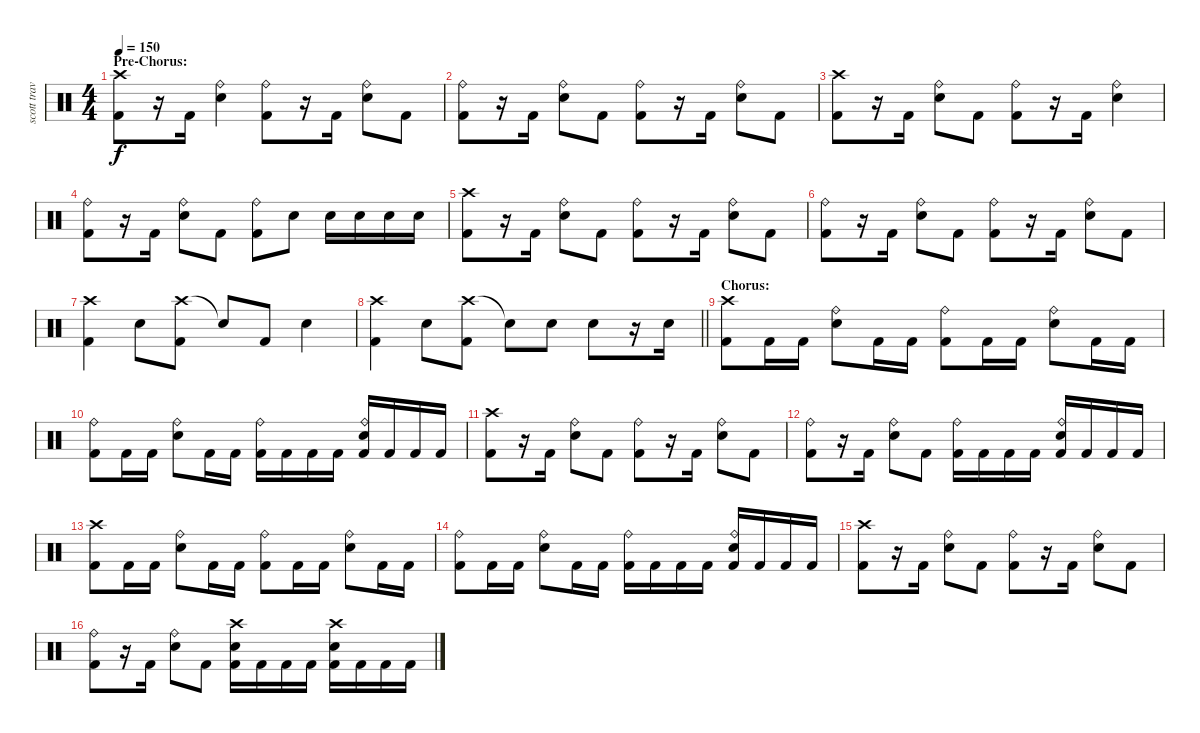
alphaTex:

\track ("scott travis" "scott trav") {instrument percussion}
\staff {score}
\articulation defaults
\ts (4 4)
\section ("" "Pre-Chorus:")
\tempo 150
\clef neutral
\ks c
("Crash high (hit)" "Kick (hit) 2").8{dy f} r.16 "Kick (hit) 2".16 ("Ride (bell)" "Snare (hit) 2").4 ("Ride (bell)" "Kick (hit) 2").8 r.16 "Kick (hit) 2".16 ("Ride (bell)" "Snare (hit) 2").8 "Kick (hit) 2".8 |
("Ride (bell)" "Kick (hit) 2").8 r.16 "Kick (hit) 2".16 ("Ride (bell)" "Snare (hit) 2").8 "Kick (hit) 2".8 ("Ride (bell)" "Kick (hit) 2").8 r.16 "Kick (hit) 2".16 ("Ride (bell)" "Snare (hit) 2").8 "Kick (hit) 2".8 |
("Crash high (hit)" "Kick (hit) 2").8 r.16 "Kick (hit) 2".16 ("Ride (bell)" "Snare (hit) 2").8 "Kick (hit) 2".8 ("Ride (bell)" "Kick (hit) 2").8 r.16 "Kick (hit) 2".16 ("Ride (bell)" "Snare (hit) 2").4 |
("Ride (bell)" "Kick (hit) 2").8 r.16 "Kick (hit) 2".16 ("Ride (bell)" "Snare (hit) 2").8 "Kick (hit) 2".8 ("Ride (bell)" "Kick (hit) 2").8 "Snare (hit) 2".8 "Snare (hit) 2".16 "Snare (hit) 2".16 "Snare (hit) 2".16 "Snare (hit) 2".16 |
("Crash high (hit)" "Kick (hit) 2").8 r.16 "Kick (hit) 2".16 ("Ride (bell)" "Snare (hit) 2").8 "Kick (hit) 2".8 ("Ride (bell)" "Kick (hit) 2").8 r.16 "Kick (hit) 2".16 ("Ride (bell)" "Snare (hit) 2").8 "Kick (hit) 2".8 |
("Ride (bell)" "Kick (hit) 2").8 r.16 "Kick (hit) 2".16 ("Ride (bell)" "Snare (hit) 2").8 "Kick (hit) 2".8 ("Ride (bell)" "Kick (hit) 2").8 r.16 "Kick (hit) 2".16 ("Ride (bell)" "Snare (hit) 2").8 "Kick (hit) 2".8 |
("Crash high (hit)" "Kick (hit) 2").4 "Snare (hit) 2".8 ("Crash high (hit)" "Kick (hit) 2").8 "Snare (hit)"{t}.8 "Kick (hit) 2".8 "Snare (hit) 2".4 |
\barLineRight lightlight
("Crash high (hit)" "Kick (hit) 2").4 "Snare (hit) 2".8 ("Crash high (hit)" "Kick (hit) 2").8 "Snare (hit)"{t}.8 "Snare (hit) 2".8 "Snare (hit) 2".8 r.16 "Snare (hit) 2".16 |
\section ("" "Chorus:")
("Crash high (hit)" "Kick (hit) 2").8 "Kick (hit) 2".16 "Kick (hit) 2".16 ("Ride (bell)" "Snare (hit) 2").8 "Kick (hit) 2".16 "Kick (hit) 2".16 ("Ride (bell)" "Kick (hit) 2").8 "Kick (hit) 2".16 "Kick (hit) 2".16 ("Ride (bell)" "Snare (hit) 2").8 "Kick (hit) 2".16 "Kick (hit) 2".16 |
("Ride (bell)" "Kick (hit) 2").8 "Kick (hit) 2".16 "Kick (hit) 2".16 ("Ride (bell)" "Snare (hit) 2").8 "Kick (hit) 2".16 "Kick (hit) 2".16 ("Ride (bell)" "Kick (hit) 2").16 "Kick (hit) 2".16 "Kick (hit) 2".16 "Kick (hit) 2".16 ("Ride (bell)" "Snare (hit) 2" "Kick (hit) 2").16 "Kick (hit) 2".16 "Kick (hit) 2".16 "Kick (hit) 2".16 |
("Crash high (hit)" "Kick (hit) 2").8 r.16 "Kick (hit) 2".16 ("Ride (bell)" "Snare (hit) 2").8 "Kick (hit) 2".8 ("Ride (bell)" "Kick (hit) 2").8 r.16 "Kick (hit) 2".16 ("Ride (bell)" "Snare (hit) 2").8 "Kick (hit) 2".8 |
("Ride (bell)" "Kick (hit) 2").8 r.16 "Kick (hit) 2".16 ("Ride (bell)" "Snare (hit) 2").8 "Kick (hit) 2".8 ("Ride (bell)" "Kick (hit) 2").16 "Kick (hit) 2".16 "Kick (hit) 2".16 "Kick (hit) 2".16 ("Ride (bell)" "Snare (hit) 2" "Kick (hit) 2").16 "Kick (hit) 2".16 "Kick (hit) 2".16 "Kick (hit) 2".16 |
("Crash high (hit)" "Kick (hit) 2").8 "Kick (hit) 2".16 "Kick (hit) 2".16 ("Ride (bell)" "Snare (hit) 2").8 "Kick (hit) 2".16 "Kick (hit) 2".16 ("Ride (bell)" "Kick (hit) 2").8 "Kick (hit) 2".16 "Kick (hit) 2".16 ("Ride (bell)" "Snare (hit) 2").8 "Kick (hit) 2".16 "Kick (hit) 2".16 |
("Ride (bell)" "Kick (hit) 2").8 "Kick (hit) 2".16 "Kick (hit) 2".16 ("Ride (bell)" "Snare (hit) 2").8 "Kick (hit) 2".16 "Kick (hit) 2".16 ("Ride (bell)" "Kick (hit) 2").16 "Kick (hit) 2".16 "Kick (hit) 2".16 "Kick (hit) 2".16 ("Ride (bell)" "Snare (hit) 2" "Kick (hit) 2").16 "Kick (hit) 2".16 "Kick (hit) 2".16 "Kick (hit) 2".16 |
("Crash high (hit)" "Kick (hit) 2").8 r.16 "Kick (hit) 2".16 ("Ride (bell)" "Snare (hit) 2").8 "Kick (hit) 2".8 ("Ride (bell)" "Kick (hit) 2").8 r.16 "Kick (hit) 2".16 ("Ride (bell)" "Snare (hit) 2").8 "Kick (hit) 2".8 |
("Ride (bell)" "Kick (hit) 2").8 r.16 "Kick (hit) 2".16 ("Ride (bell)" "Snare (hit) 2").8 "Kick (hit) 2".8 ("Crash high (hit)" "Snare (hit) 2" "Kick (hit) 2").16 "Kick (hit) 2".16 "Kick (hit) 2".16 "Kick (hit) 2".16 ("Crash high (hit)" "Snare (hit) 2" "Kick (hit) 2").16 "Kick (hit) 2".16 "Kick (hit) 2".16 "Kick (hit) 2".16
